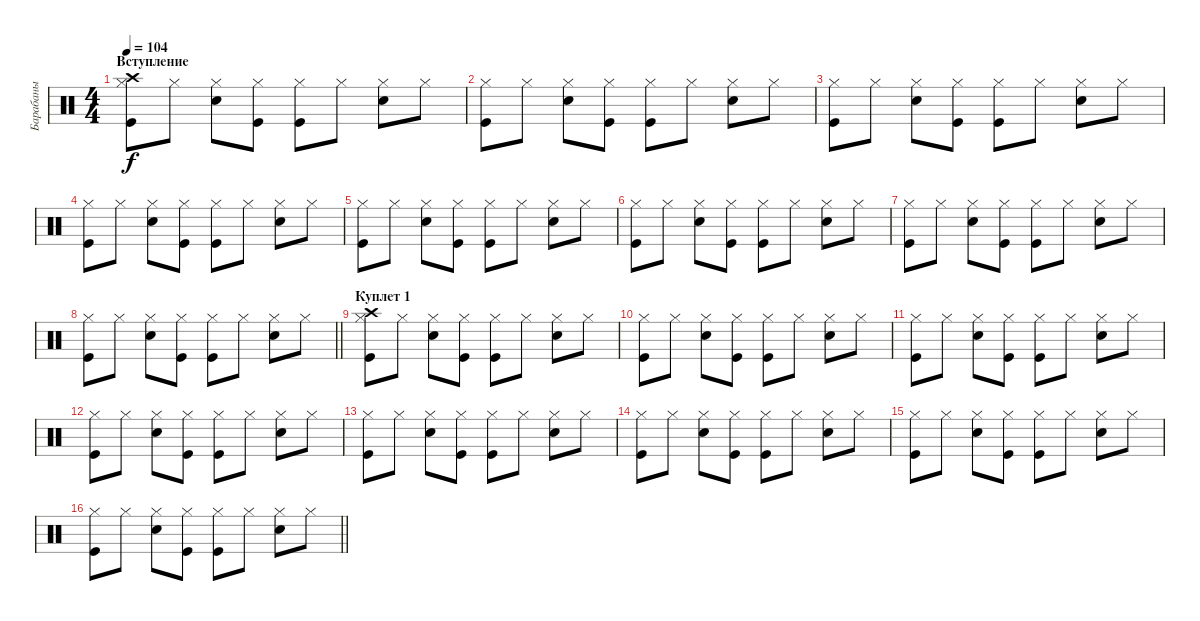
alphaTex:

\track ("Барабаны" "Барабаны") {instrument percussion}
\staff {score}
\articulation defaults
\ts (4 4)
\section ("" "Вступление")
\tempo 104
\clef neutral
\ks c
("Kick (hit)" "Hi-Hat (closed)" "Crash high (hit)").8{dy f} "Hi-Hat (closed)".8 ("Snare (hit) 2" "Hi-Hat (closed)").8 ("Kick (hit)" "Hi-Hat (closed)").8 ("Kick (hit)" "Hi-Hat (closed)").8 "Hi-Hat (closed)".8 ("Snare (hit) 2" "Hi-Hat (closed)").8 "Hi-Hat (closed)".8 |
("Kick (hit)" "Hi-Hat (closed)").8 "Hi-Hat (closed)".8 ("Snare (hit) 2" "Hi-Hat (closed)").8 ("Kick (hit)" "Hi-Hat (closed)").8 ("Kick (hit)" "Hi-Hat (closed)").8 "Hi-Hat (closed)".8 ("Snare (hit) 2" "Hi-Hat (closed)").8 "Hi-Hat (closed)".8 |
("Kick (hit)" "Hi-Hat (closed)").8 "Hi-Hat (closed)".8 ("Snare (hit) 2" "Hi-Hat (closed)").8 ("Kick (hit)" "Hi-Hat (closed)").8 ("Kick (hit)" "Hi-Hat (closed)").8 "Hi-Hat (closed)".8 ("Snare (hit) 2" "Hi-Hat (closed)").8 "Hi-Hat (closed)".8 |
("Kick (hit)" "Hi-Hat (closed)").8 "Hi-Hat (closed)".8 ("Snare (hit) 2" "Hi-Hat (closed)").8 ("Kick (hit)" "Hi-Hat (closed)").8 ("Kick (hit)" "Hi-Hat (closed)").8 "Hi-Hat (closed)".8 ("Snare (hit) 2" "Hi-Hat (closed)").8 "Hi-Hat (closed)".8 |
("Kick (hit)" "Hi-Hat (closed)").8 "Hi-Hat (closed)".8 ("Snare (hit) 2" "Hi-Hat (closed)").8 ("Kick (hit)" "Hi-Hat (closed)").8 ("Kick (hit)" "Hi-Hat (closed)").8 "Hi-Hat (closed)".8 ("Snare (hit) 2" "Hi-Hat (closed)").8 "Hi-Hat (closed)".8 |
("Kick (hit)" "Hi-Hat (closed)").8 "Hi-Hat (closed)".8 ("Snare (hit) 2" "Hi-Hat (closed)").8 ("Kick (hit)" "Hi-Hat (closed)").8 ("Kick (hit)" "Hi-Hat (closed)").8 "Hi-Hat (closed)".8 ("Snare (hit) 2" "Hi-Hat (closed)").8 "Hi-Hat (closed)".8 |
("Kick (hit)" "Hi-Hat (closed)").8 "Hi-Hat (closed)".8 ("Snare (hit) 2" "Hi-Hat (closed)").8 ("Kick (hit)" "Hi-Hat (closed)").8 ("Kick (hit)" "Hi-Hat (closed)").8 "Hi-Hat (closed)".8 ("Snare (hit) 2" "Hi-Hat (closed)").8 "Hi-Hat (closed)".8 |
\barLineRight lightlight
("Kick (hit)" "Hi-Hat (closed)").8 "Hi-Hat (closed)".8 ("Snare (hit) 2" "Hi-Hat (closed)").8 ("Kick (hit)" "Hi-Hat (closed)").8 ("Kick (hit)" "Hi-Hat (closed)").8 "Hi-Hat (closed)".8 ("Snare (hit) 2" "Hi-Hat (closed)").8 "Hi-Hat (closed)".8 |
\section ("" "Куплет 1")
("Kick (hit)" "Hi-Hat (closed)" "Crash high (hit)").8 "Hi-Hat (closed)".8 ("Snare (hit) 2" "Hi-Hat (closed)").8 ("Kick (hit)" "Hi-Hat (closed)").8 ("Kick (hit)" "Hi-Hat (closed)").8 "Hi-Hat (closed)".8 ("Snare (hit) 2" "Hi-Hat (closed)").8 "Hi-Hat (closed)".8 |
("Kick (hit)" "Hi-Hat (closed)").8 "Hi-Hat (closed)".8 ("Snare (hit) 2" "Hi-Hat (closed)").8 ("Kick (hit)" "Hi-Hat (closed)").8 ("Kick (hit)" "Hi-Hat (closed)").8 "Hi-Hat (closed)".8 ("Snare (hit) 2" "Hi-Hat (closed)").8 "Hi-Hat (closed)".8 |
("Kick (hit)" "Hi-Hat (closed)").8 "Hi-Hat (closed)".8 ("Snare (hit) 2" "Hi-Hat (closed)").8 ("Kick (hit)" "Hi-Hat (closed)").8 ("Kick (hit)" "Hi-Hat (closed)").8 "Hi-Hat (closed)".8 ("Snare (hit) 2" "Hi-Hat (closed)").8 "Hi-Hat (closed)".8 |
("Kick (hit)" "Hi-Hat (closed)").8 "Hi-Hat (closed)".8 ("Snare (hit) 2" "Hi-Hat (closed)").8 ("Kick (hit)" "Hi-Hat (closed)").8 ("Kick (hit)" "Hi-Hat (closed)").8 "Hi-Hat (closed)".8 ("Snare (hit) 2" "Hi-Hat (closed)").8 "Hi-Hat (closed)".8 |
("Kick (hit)" "Hi-Hat (closed)").8 "Hi-Hat (closed)".8 ("Snare (hit) 2" "Hi-Hat (closed)").8 ("Kick (hit)" "Hi-Hat (closed)").8 ("Kick (hit)" "Hi-Hat (closed)").8 "Hi-Hat (closed)".8 ("Snare (hit) 2" "Hi-Hat (closed)").8 "Hi-Hat (closed)".8 |
("Kick (hit)" "Hi-Hat (closed)").8 "Hi-Hat (closed)".8 ("Snare (hit) 2" "Hi-Hat (closed)").8 ("Kick (hit)" "Hi-Hat (closed)").8 ("Kick (hit)" "Hi-Hat (closed)").8 "Hi-Hat (closed)".8 ("Snare (hit) 2" "Hi-Hat (closed)").8 "Hi-Hat (closed)".8 |
("Kick (hit)" "Hi-Hat (closed)").8 "Hi-Hat (closed)".8 ("Snare (hit) 2" "Hi-Hat (closed)").8 ("Kick (hit)" "Hi-Hat (closed)").8 ("Kick (hit)" "Hi-Hat (closed)").8 "Hi-Hat (closed)".8 ("Snare (hit) 2" "Hi-Hat (closed)").8 "Hi-Hat (closed)".8 |
\barLineRight lightlight
("Kick (hit)" "Hi-Hat (closed)").8 "Hi-Hat (closed)".8 ("Snare (hit) 2" "Hi-Hat (closed)").8 ("Kick (hit)" "Hi-Hat (closed)").8 ("Kick (hit)" "Hi-Hat (closed)").8 "Hi-Hat (closed)".8 ("Snare (hit) 2" "Hi-Hat (closed)").8 "Hi-Hat (closed)".8
